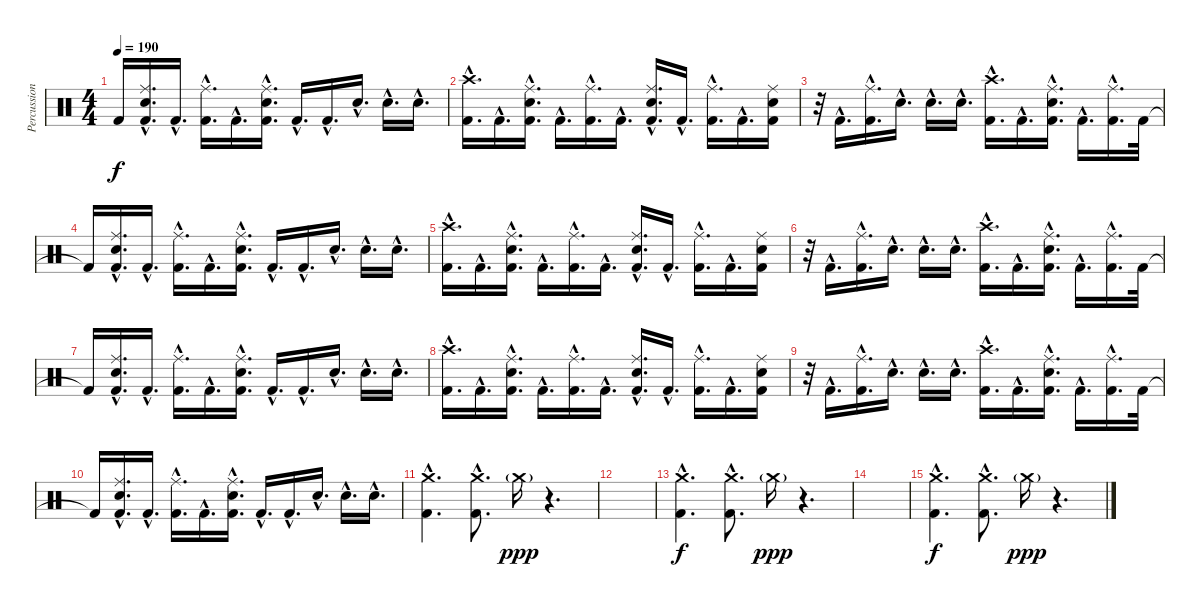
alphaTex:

\track ("Percussion" "Percussion") {instrument percussion}
\staff {score}
\articulation defaults
\ts (4 4)
\tempo 190
\clef neutral
\ks c "Kick (hit) 2"{t}.16{dy f}
("Ride (middle)"{hac} "Snare (hit) 2"{hac} "Kick (hit) 2"{hac}).16{d} "Kick (hit) 2"{hac}.16{d} ("Ride (middle)"{hac} "Kick (hit) 2"{hac}).16{d} "Kick (hit) 2"{hac}.16{d} ("Ride (middle)"{hac} "Snare (hit) 2"{hac} "Kick (hit) 2"{hac}).16{d} "Kick (hit) 2"{hac}.16{d} "Kick (hit) 2"{hac}.16{d} "Snare (hit) 2"{hac}.16{d} "Snare (hit) 2"{hac}.16{d} "Snare (hit) 2"{hac}.16{d} |
("Crash high (hit)"{hac} "Kick (hit) 2"{hac}).16{d} "Kick (hit) 2"{hac}.16{d} ("Ride (middle)"{hac} "Snare (hit) 2"{hac} "Kick (hit) 2"{hac}).16{d} "Kick (hit) 2"{hac}.16{d} ("Ride (middle)"{hac} "Kick (hit) 2"{hac}).16{d} "Kick (hit) 2"{hac}.16{d} ("Ride (middle)"{hac} "Snare (hit) 2"{hac} "Kick (hit) 2"{hac}).16{d} "Kick (hit) 2"{hac}.16{d} ("Ride (middle)"{hac} "Kick (hit) 2"{hac}).16{d} "Kick (hit) 2"{hac}.16{d} ("Ride (middle)" "Snare (hit) 2" "Kick (hit) 2").16 |
r.32 "Kick (hit) 2"{hac}.16{d} ("Ride (middle)"{hac} "Kick (hit) 2"{hac}).16{d} "Snare (hit) 2"{hac}.16{d} "Snare (hit) 2"{hac}.16{d} "Snare (hit) 2"{hac}.16{d} ("Crash high (hit)"{hac} "Kick (hit) 2"{hac}).16{d} "Kick (hit) 2"{hac}.16{d} ("Ride (middle)"{hac} "Snare (hit) 2"{hac} "Kick (hit) 2"{hac}).16{d} "Kick (hit) 2"{hac}.16{d} ("Ride (middle)"{hac} "Kick (hit) 2"{hac}).16{d} "Kick (hit) 2".32 |
"Kick (hit) 2"{t}.16 ("Ride (middle)"{hac} "Snare (hit) 2"{hac} "Kick (hit) 2"{hac}).16{d} "Kick (hit) 2"{hac}.16{d} ("Ride (middle)"{hac} "Kick (hit) 2"{hac}).16{d} "Kick (hit) 2"{hac}.16{d} ("Ride (middle)"{hac} "Snare (hit) 2"{hac} "Kick (hit) 2"{hac}).16{d} "Kick (hit) 2"{hac}.16{d} "Kick (hit) 2"{hac}.16{d} "Snare (hit) 2"{hac}.16{d} "Snare (hit) 2"{hac}.16{d} "Snare (hit) 2"{hac}.16{d} |
("Crash high (hit)"{hac} "Kick (hit) 2"{hac}).16{d} "Kick (hit) 2"{hac}.16{d} ("Ride (middle)"{hac} "Snare (hit) 2"{hac} "Kick (hit) 2"{hac}).16{d} "Kick (hit) 2"{hac}.16{d} ("Ride (middle)"{hac} "Kick (hit) 2"{hac}).16{d} "Kick (hit) 2"{hac}.16{d} ("Ride (middle)"{hac} "Snare (hit) 2"{hac} "Kick (hit) 2"{hac}).16{d} "Kick (hit) 2"{hac}.16{d} ("Ride (middle)"{hac} "Kick (hit) 2"{hac}).16{d} "Kick (hit) 2"{hac}.16{d} ("Ride (middle)" "Snare (hit) 2" "Kick (hit) 2").16 |
r.32 "Kick (hit) 2"{hac}.16{d} ("Ride (middle)"{hac} "Kick (hit) 2"{hac}).16{d} "Snare (hit) 2"{hac}.16{d} "Snare (hit) 2"{hac}.16{d} "Snare (hit) 2"{hac}.16{d} ("Crash high (hit)"{hac} "Kick (hit) 2"{hac}).16{d} "Kick (hit) 2"{hac}.16{d} ("Ride (middle)"{hac} "Snare (hit) 2"{hac} "Kick (hit) 2"{hac}).16{d} "Kick (hit) 2"{hac}.16{d} ("Ride (middle)"{hac} "Kick (hit) 2"{hac}).16{d} "Kick (hit) 2".32 |
"Kick (hit) 2"{t}.16 ("Ride (middle)"{hac} "Snare (hit) 2"{hac} "Kick (hit) 2"{hac}).16{d} "Kick (hit) 2"{hac}.16{d} ("Ride (middle)"{hac} "Kick (hit) 2"{hac}).16{d} "Kick (hit) 2"{hac}.16{d} ("Ride (middle)"{hac} "Snare (hit) 2"{hac} "Kick (hit) 2"{hac}).16{d} "Kick (hit) 2"{hac}.16{d} "Kick (hit) 2"{hac}.16{d} "Snare (hit) 2"{hac}.16{d} "Snare (hit) 2"{hac}.16{d} "Snare (hit) 2"{hac}.16{d} |
("Crash high (hit)"{hac} "Kick (hit) 2"{hac}).16{d} "Kick (hit) 2"{hac}.16{d} ("Ride (middle)"{hac} "Snare (hit) 2"{hac} "Kick (hit) 2"{hac}).16{d} "Kick (hit) 2"{hac}.16{d} ("Ride (middle)"{hac} "Kick (hit) 2"{hac}).16{d} "Kick (hit) 2"{hac}.16{d} ("Ride (middle)"{hac} "Snare (hit) 2"{hac} "Kick (hit) 2"{hac}).16{d} "Kick (hit) 2"{hac}.16{d} ("Ride (middle)"{hac} "Kick (hit) 2"{hac}).16{d} "Kick (hit) 2"{hac}.16{d} ("Ride (middle)" "Snare (hit) 2" "Kick (hit) 2").16 |
r.32 "Kick (hit) 2"{hac}.16{d} ("Ride (middle)"{hac} "Kick (hit) 2"{hac}).16{d} "Snare (hit) 2"{hac}.16{d} "Snare (hit) 2"{hac}.16{d} "Snare (hit) 2"{hac}.16{d} ("Crash high (hit)"{hac} "Kick (hit) 2"{hac}).16{d} "Kick (hit) 2"{hac}.16{d} ("Ride (middle)"{hac} "Snare (hit) 2"{hac} "Kick (hit) 2"{hac}).16{d} "Kick (hit) 2"{hac}.16{d} ("Ride (middle)"{hac} "Kick (hit) 2"{hac}).16{d} "Kick (hit) 2".32 |
"Kick (hit) 2"{t}.16 ("Ride (middle)"{hac} "Snare (hit) 2"{hac} "Kick (hit) 2"{hac}).16{d} "Kick (hit) 2"{hac}.16{d} ("Ride (middle)"{hac} "Kick (hit) 2"{hac}).16{d} "Kick (hit) 2"{hac}.16{d} ("Ride (middle)"{hac} "Snare (hit) 2"{hac} "Kick (hit) 2"{hac}).16{d} "Kick (hit) 2"{hac}.16{d} "Kick (hit) 2"{hac}.16{d} "Snare (hit) 2"{hac}.16{d} "Snare (hit) 2"{hac}.16{d} "Snare (hit) 2"{hac}.16{d} |
("Crash medium (hit)"{hac} "Kick (hit) 2"{hac}).4{d} ("Crash medium (hit)"{hac} "Kick (hit) 2"{hac}).8{d} "Crash medium (hit)"{g}.16{dy ppp} r.4{d} |
|
("Crash medium (hit)"{hac} "Kick (hit) 2"{hac}).4{d dy f} ("Crash medium (hit)"{hac} "Kick (hit) 2"{hac}).8{d} "Crash medium (hit)"{g}.16{dy ppp} r.4{d} |
|
("Crash medium (hit)"{hac} "Kick (hit) 2"{hac}).4{d dy f} ("Crash medium (hit)"{hac} "Kick (hit) 2"{hac}).8{d} "Crash medium (hit)"{g}.16{dy ppp} r.4{d}
